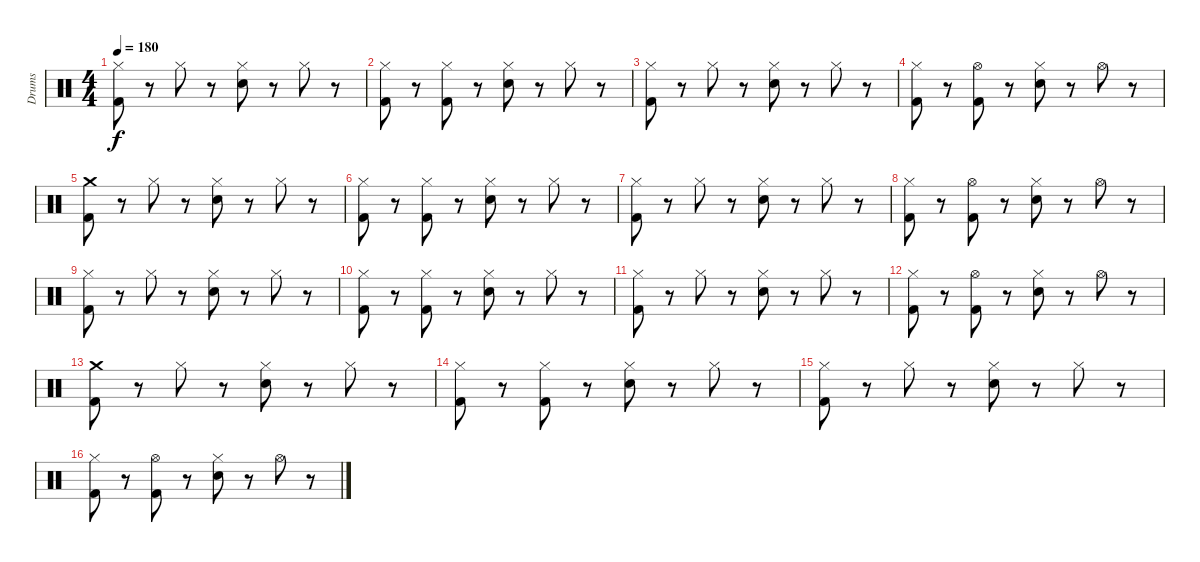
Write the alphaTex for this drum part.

\track ("Drums" "Drums") {instrument percussion}
\staff {score}
\articulation defaults
\ts (4 4)
\tempo 180
\clef neutral
\ks c
("Hi-Hat (closed)" "Kick (hit) 2").8{dy f} r.8 "Hi-Hat (closed)".8 r.8 ("Hi-Hat (closed)" "Electric Snare (hit)").8 r.8 "Hi-Hat (closed)".8 r.8 |
("Hi-Hat (closed)" "Kick (hit) 2").8 r.8 ("Hi-Hat (closed)" "Kick (hit) 2").8 r.8 ("Hi-Hat (closed)" "Electric Snare (hit)").8 r.8 "Hi-Hat (closed)".8 r.8 |
("Hi-Hat (closed)" "Kick (hit) 2").8 r.8 "Hi-Hat (closed)".8 r.8 ("Hi-Hat (closed)" "Electric Snare (hit)").8 r.8 "Hi-Hat (closed)".8 r.8 |
("Hi-Hat (closed)" "Kick (hit) 2").8 r.8 ("Hi-Hat (open)" "Kick (hit) 2").8 r.8 ("Hi-Hat (closed)" "Electric Snare (hit)").8 r.8 "Hi-Hat (open)".8 r.8 |
("Crash medium (hit)" "Kick (hit) 2").8 r.8 "Hi-Hat (closed)".8 r.8 ("Hi-Hat (closed)" "Electric Snare (hit)").8 r.8 "Hi-Hat (closed)".8 r.8 |
("Hi-Hat (closed)" "Kick (hit) 2").8 r.8 ("Hi-Hat (closed)" "Kick (hit) 2").8 r.8 ("Hi-Hat (closed)" "Electric Snare (hit)").8 r.8 "Hi-Hat (closed)".8 r.8 |
("Hi-Hat (closed)" "Kick (hit) 2").8 r.8 "Hi-Hat (closed)".8 r.8 ("Hi-Hat (closed)" "Electric Snare (hit)").8 r.8 "Hi-Hat (closed)".8 r.8 |
("Hi-Hat (closed)" "Kick (hit) 2").8 r.8 ("Hi-Hat (open)" "Kick (hit) 2").8 r.8 ("Hi-Hat (closed)" "Electric Snare (hit)").8 r.8 "Hi-Hat (open)".8 r.8 |
("Hi-Hat (closed)" "Kick (hit) 2").8 r.8 "Hi-Hat (closed)".8 r.8 ("Hi-Hat (closed)" "Electric Snare (hit)").8 r.8 "Hi-Hat (closed)".8 r.8 |
("Hi-Hat (closed)" "Kick (hit) 2").8 r.8 ("Hi-Hat (closed)" "Kick (hit) 2").8 r.8 ("Hi-Hat (closed)" "Electric Snare (hit)").8 r.8 "Hi-Hat (closed)".8 r.8 |
("Hi-Hat (closed)" "Kick (hit) 2").8 r.8 "Hi-Hat (closed)".8 r.8 ("Hi-Hat (closed)" "Electric Snare (hit)").8 r.8 "Hi-Hat (closed)".8 r.8 |
("Hi-Hat (closed)" "Kick (hit) 2").8 r.8 ("Hi-Hat (open)" "Kick (hit) 2").8 r.8 ("Hi-Hat (closed)" "Electric Snare (hit)").8 r.8 "Hi-Hat (open)".8 r.8 |
("Crash medium (hit)" "Kick (hit) 2").8 r.8 "Hi-Hat (closed)".8 r.8 ("Hi-Hat (closed)" "Electric Snare (hit)").8 r.8 "Hi-Hat (closed)".8 r.8 |
("Hi-Hat (closed)" "Kick (hit) 2").8 r.8 ("Hi-Hat (closed)" "Kick (hit) 2").8 r.8 ("Hi-Hat (closed)" "Electric Snare (hit)").8 r.8 "Hi-Hat (closed)".8 r.8 |
("Hi-Hat (closed)" "Kick (hit) 2").8 r.8 "Hi-Hat (closed)".8 r.8 ("Hi-Hat (closed)" "Electric Snare (hit)").8 r.8 "Hi-Hat (closed)".8 r.8 |
("Hi-Hat (closed)" "Kick (hit) 2").8 r.8 ("Hi-Hat (open)" "Kick (hit) 2").8 r.8 ("Hi-Hat (closed)" "Electric Snare (hit)").8 r.8 "Hi-Hat (open)".8 r.8
